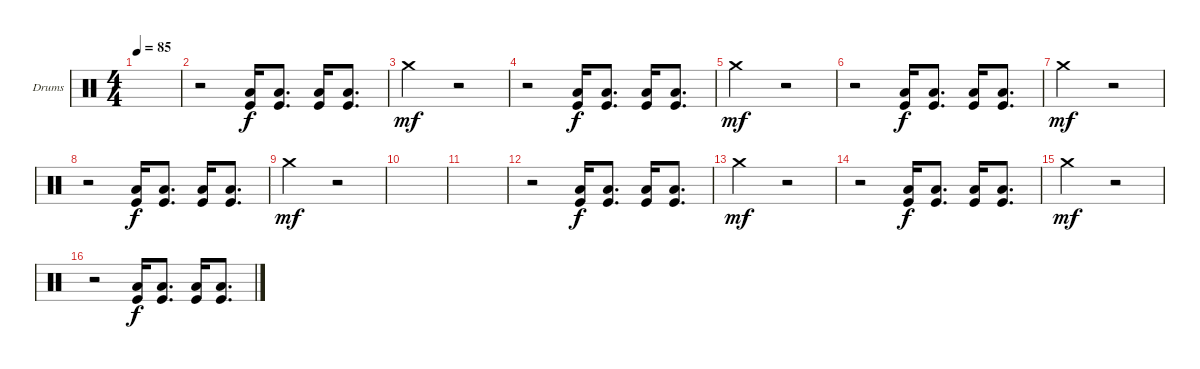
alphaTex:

\defaultSystemsLayout 4
\bracketExtendMode groupsimilarinstruments
\firstSystemTrackNameOrientation horizontal
\otherSystemsTrackNameOrientation horizontal
\track ("Drumkit" "Drums") {instrument percussion}
\staff {score}
\articulation defaults
\ts (4 4)
\tempo 85
\clef neutral
\scale
0.333333
\ks c
|
\scale
0.333333 r.2 ("Low Tom (hit)" "Kick (hit)").16 ("Low Tom (hit)" "Kick (hit)").8{d} ("Low Tom (hit)" "Kick (hit)").16 ("Low Tom (hit)" "Kick (hit)").8{d} |
\scale
0.333333 "Crash medium (hit)".2{dy mf} r.2 |
\scale
0.333333 r.2 ("Low Tom (hit)" "Kick (hit)").16{dy f} ("Low Tom (hit)" "Kick (hit)").8{d} ("Low Tom (hit)" "Kick (hit)").16 ("Low Tom (hit)" "Kick (hit)").8{d} |
\scale
0.333333 "Crash medium (hit)".2{dy mf} r.2 |
\scale
0.333333 r.2 ("Low Tom (hit)" "Kick (hit)").16{dy f} ("Low Tom (hit)" "Kick (hit)").8{d} ("Low Tom (hit)" "Kick (hit)").16 ("Low Tom (hit)" "Kick (hit)").8{d} |
\scale
0.333333 "Crash medium (hit)".2{dy mf} r.2 |
r.2 ("Low Tom (hit)" "Kick (hit)").16{dy f} ("Low Tom (hit)" "Kick (hit)").8{d} ("Low Tom (hit)" "Kick (hit)").16 ("Low Tom (hit)" "Kick (hit)").8{d} |
"Crash medium (hit)".2{dy mf} r.2 |
|
|
r.2 ("Low Tom (hit)" "Kick (hit)").16{dy f} ("Low Tom (hit)" "Kick (hit)").8{d} ("Low Tom (hit)" "Kick (hit)").16 ("Low Tom (hit)" "Kick (hit)").8{d} |
"Crash medium (hit)".2{dy mf} r.2 |
r.2 ("Low Tom (hit)" "Kick (hit)").16{dy f} ("Low Tom (hit)" "Kick (hit)").8{d} ("Low Tom (hit)" "Kick (hit)").16 ("Low Tom (hit)" "Kick (hit)").8{d} |
"Crash medium (hit)".2{dy mf} r.2 |
r.2 ("Low Tom (hit)" "Kick (hit)").16{dy f} ("Low Tom (hit)" "Kick (hit)").8{d} ("Low Tom (hit)" "Kick (hit)").16 ("Low Tom (hit)" "Kick (hit)").8{d}
